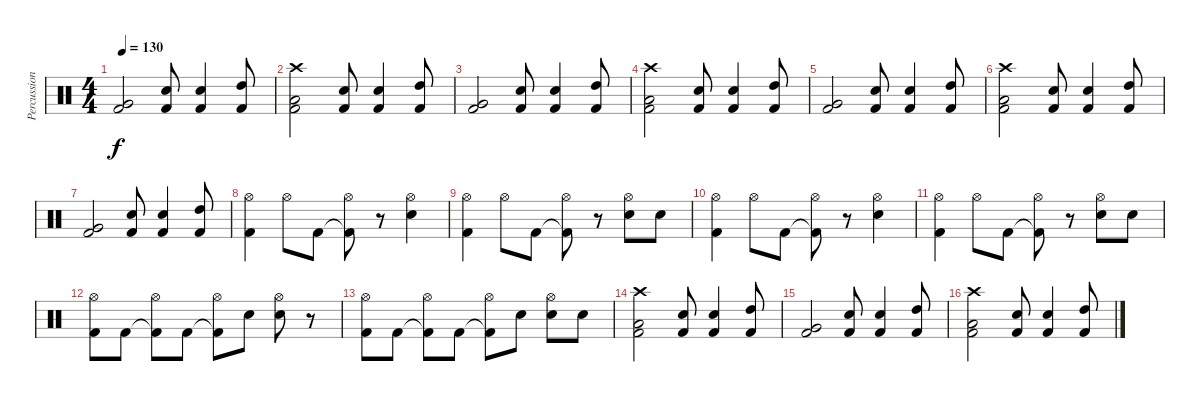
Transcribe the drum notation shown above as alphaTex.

\track ("Percussioni" "Percussion") {instrument percussion}
\staff {score}
\articulation defaults
\ts (4 4)
\tempo 130
\clef neutral
\ks c
("Kick (hit) 2" "Very Low Tom (hit)").2{dy f} ("Snare (hit) 2" "Kick (hit) 2").8 ("Snare (hit) 2" "Kick (hit) 2").4 ("High Tom (hit)" "Kick (hit) 2").8 |
("Kick (hit) 2" "Low Tom (hit)" "Crash high (hit)").2 ("Snare (hit) 2" "Kick (hit) 2").8 ("Snare (hit) 2" "Kick (hit) 2").4 ("High Tom (hit)" "Kick (hit) 2").8 |
("Kick (hit) 2" "Very Low Tom (hit)").2 ("Snare (hit) 2" "Kick (hit) 2").8 ("Snare (hit) 2" "Kick (hit) 2").4 ("High Tom (hit)" "Kick (hit) 2").8 |
("Kick (hit) 2" "Low Tom (hit)" "Crash high (hit)").2 ("Snare (hit) 2" "Kick (hit) 2").8 ("Snare (hit) 2" "Kick (hit) 2").4 ("High Tom (hit)" "Kick (hit) 2").8 |
("Kick (hit) 2" "Very Low Tom (hit)").2 ("Snare (hit) 2" "Kick (hit) 2").8 ("Snare (hit) 2" "Kick (hit) 2").4 ("High Tom (hit)" "Kick (hit) 2").8 |
("Kick (hit) 2" "Low Tom (hit)" "Crash high (hit)").2 ("Snare (hit) 2" "Kick (hit) 2").8 ("Snare (hit) 2" "Kick (hit) 2").4 ("High Tom (hit)" "Kick (hit) 2").8 |
("Kick (hit) 2" "Very Low Tom (hit)").2 ("Snare (hit) 2" "Kick (hit) 2").8 ("Snare (hit) 2" "Kick (hit) 2").4 ("High Tom (hit)" "Kick (hit) 2").8 |
("Kick (hit) 2" "Hi-Hat (open)").4 "Hi-Hat (open)".8 "Kick (hit) 2".8 ("Kick (hit) 2"{t} "Hi-Hat (open)").8 r.8 ("Snare (hit) 2" "Hi-Hat (open)").4 |
("Kick (hit) 2" "Hi-Hat (open)").4 "Hi-Hat (open)".8 "Kick (hit) 2".8 ("Kick (hit) 2"{t} "Hi-Hat (open)").8 r.8 ("Snare (hit) 2" "Hi-Hat (open)").8 "Snare (hit) 2".8 |
("Kick (hit) 2" "Hi-Hat (open)").4 "Hi-Hat (open)".8 "Kick (hit) 2".8 ("Kick (hit) 2"{t} "Hi-Hat (open)").8 r.8 ("Snare (hit) 2" "Hi-Hat (open)").4 |
("Kick (hit) 2" "Hi-Hat (open)").4 "Hi-Hat (open)".8 "Kick (hit) 2".8 ("Kick (hit) 2"{t} "Hi-Hat (open)").8 r.8 ("Snare (hit) 2" "Hi-Hat (open)").8 "Snare (hit) 2".8 |
("Kick (hit) 2" "Hi-Hat (open)").8 "Kick (hit) 2".8 ("Kick (hit) 2"{t} "Hi-Hat (open)").8 "Kick (hit) 2".8 ("Kick (hit) 2"{t} "Hi-Hat (open)").8 "Snare (hit) 2".8 ("Snare (hit) 2" "Hi-Hat (open)").8 r.8 |
("Kick (hit) 2" "Hi-Hat (open)").8 "Kick (hit) 2".8 ("Kick (hit) 2"{t} "Hi-Hat (open)").8 "Kick (hit) 2".8 ("Kick (hit) 2"{t} "Hi-Hat (open)").8 "Snare (hit) 2".8 ("Snare (hit) 2" "Hi-Hat (open)").8 "Snare (hit) 2".8 |
("Kick (hit) 2" "Low Tom (hit)" "Crash high (hit)").2 ("Snare (hit) 2" "Kick (hit) 2").8 ("Snare (hit) 2" "Kick (hit) 2").4 ("High Tom (hit)" "Kick (hit) 2").8 |
("Kick (hit) 2" "Very Low Tom (hit)").2 ("Snare (hit) 2" "Kick (hit) 2").8 ("Snare (hit) 2" "Kick (hit) 2").4 ("High Tom (hit)" "Kick (hit) 2").8 |
("Kick (hit) 2" "Low Tom (hit)" "Crash high (hit)").2 ("Snare (hit) 2" "Kick (hit) 2").8 ("Snare (hit) 2" "Kick (hit) 2").4 ("High Tom (hit)" "Kick (hit) 2").8
